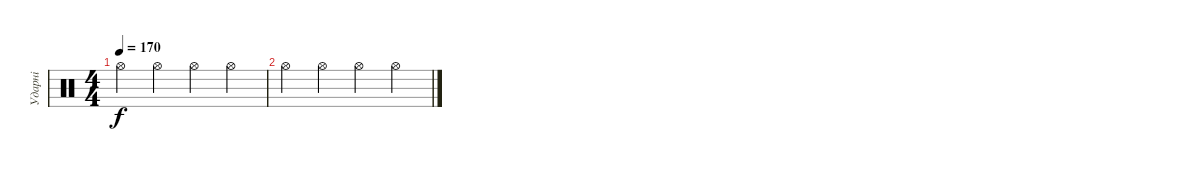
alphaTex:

\track ("Ударні" "Ударні") {instrument percussion}
\staff {score}
\articulation defaults
\ts (4 4)
\tempo 170
\clef neutral
\ks c "Hi-Hat (open)".4{dy f} "Hi-Hat (open)".4 "Hi-Hat (open)".4 "Hi-Hat (open)".4
|
"Hi-Hat (open)".4 "Hi-Hat (open)".4 "Hi-Hat (open)".4 "Hi-Hat (open)".4
